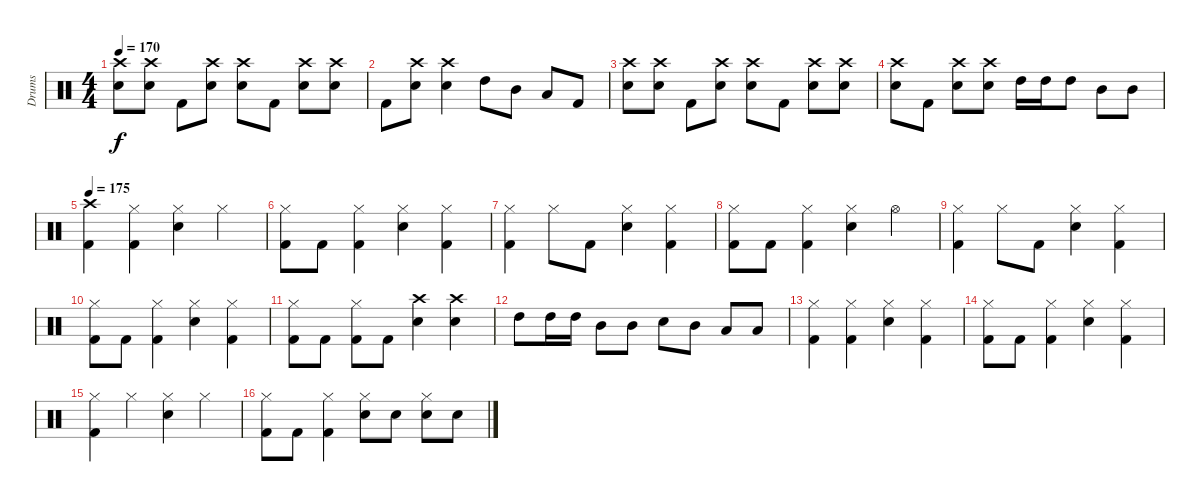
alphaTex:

\track ("Drums" "Drums") {mute instrument percussion}
\staff {score}
\articulation defaults
\ts (4 4)
\tempo 170
\clef neutral
\ks c
("Crash high (hit)" "Electric Snare (hit)").8{dy f} ("Crash high (hit)" "Electric Snare (hit)").8 "Kick (hit) 2".8 ("Crash high (hit)" "Electric Snare (hit)").8 ("Crash high (hit)" "Electric Snare (hit)").8 "Kick (hit) 2".8 ("Crash high (hit)" "Electric Snare (hit)").8 ("Crash high (hit)" "Electric Snare (hit)").8 |
"Kick (hit) 2".8 ("Crash high (hit)" "Electric Snare (hit)").8 ("Crash high (hit)" "Electric Snare (hit)").4 "High Tom (hit)".8 "Mid Tom (hit)".8 "Low Tom (hit)".8 "Kick (hit) 2".8 |
("Crash high (hit)" "Electric Snare (hit)").8 ("Crash high (hit)" "Electric Snare (hit)").8 "Kick (hit) 2".8 ("Crash high (hit)" "Electric Snare (hit)").8 ("Crash high (hit)" "Electric Snare (hit)").8 "Kick (hit) 2".8 ("Crash high (hit)" "Electric Snare (hit)").8 ("Crash high (hit)" "Electric Snare (hit)").8 |
("Crash high (hit)" "Electric Snare (hit)").8 "Kick (hit) 2".8 ("Crash high (hit)" "Electric Snare (hit)").8 ("Crash high (hit)" "Electric Snare (hit)").8 "High Tom (hit)".16 "High Tom (hit)".16 "High Tom (hit)".8 "Mid Tom (hit)".8 "Mid Tom (hit)".8 |
\tempo 175
("Crash high (hit)" "Kick (hit) 2").4 ("Hi-Hat (closed)" "Kick (hit) 2").4 ("Hi-Hat (closed)" "Electric Snare (hit)").4 "Hi-Hat (closed)".4 |
("Hi-Hat (closed)" "Kick (hit) 2").8 "Kick (hit) 2".8 ("Hi-Hat (closed)" "Kick (hit) 2").4 ("Hi-Hat (closed)" "Electric Snare (hit)").4 ("Hi-Hat (closed)" "Kick (hit) 2").4 |
("Hi-Hat (closed)" "Kick (hit) 2").4 "Hi-Hat (closed)".8 "Kick (hit) 2".8 ("Hi-Hat (closed)" "Electric Snare (hit)").4 ("Hi-Hat (closed)" "Kick (hit) 2").4 |
("Hi-Hat (closed)" "Kick (hit) 2").8 "Kick (hit) 2".8 ("Hi-Hat (closed)" "Kick (hit) 2").4 ("Hi-Hat (closed)" "Electric Snare (hit)").4 "Hi-Hat (open)".4 |
("Hi-Hat (closed)" "Kick (hit) 2").4 "Hi-Hat (closed)".8 "Kick (hit) 2".8 ("Hi-Hat (closed)" "Electric Snare (hit)").4 ("Hi-Hat (closed)" "Kick (hit) 2").4 |
("Hi-Hat (closed)" "Kick (hit) 2").8 "Kick (hit) 2".8 ("Hi-Hat (closed)" "Kick (hit) 2").4 ("Hi-Hat (closed)" "Electric Snare (hit)").4 ("Hi-Hat (closed)" "Kick (hit) 2").4 |
("Hi-Hat (closed)" "Kick (hit) 2").8 "Kick (hit) 2".8 ("Hi-Hat (closed)" "Kick (hit) 2").8 "Kick (hit) 2".8 ("Crash high (hit)" "Electric Snare (hit)").4 ("Crash high (hit)" "Electric Snare (hit)").4 |
"High Tom (hit)".8 "High Tom (hit)".16 "High Tom (hit)".16 "Mid Tom (hit)".8 "Mid Tom (hit)".8 "Electric Snare (hit)".8 "Mid Tom (hit)".8 "Low Tom (hit)".8 "Low Tom (hit)".8 |
("Hi-Hat (closed)" "Kick (hit) 2").4 ("Hi-Hat (closed)" "Kick (hit) 2").4 ("Hi-Hat (closed)" "Electric Snare (hit)").4 ("Hi-Hat (closed)" "Kick (hit) 2").4 |
("Hi-Hat (closed)" "Kick (hit) 2").8 "Kick (hit) 2".8 ("Hi-Hat (closed)" "Kick (hit) 2").4 ("Hi-Hat (closed)" "Electric Snare (hit)").4 ("Hi-Hat (closed)" "Kick (hit) 2").4 |
("Hi-Hat (closed)" "Kick (hit) 2").4 "Hi-Hat (closed)".4 ("Hi-Hat (closed)" "Electric Snare (hit)").4 "Hi-Hat (closed)".4 |
("Hi-Hat (closed)" "Kick (hit) 2").8 "Kick (hit) 2".8 ("Hi-Hat (closed)" "Kick (hit) 2").4 ("Hi-Hat (closed)" "Electric Snare (hit)").8 "Electric Snare (hit)".8 ("Hi-Hat (closed)" "Electric Snare (hit)").8 "Electric Snare (hit)".8
